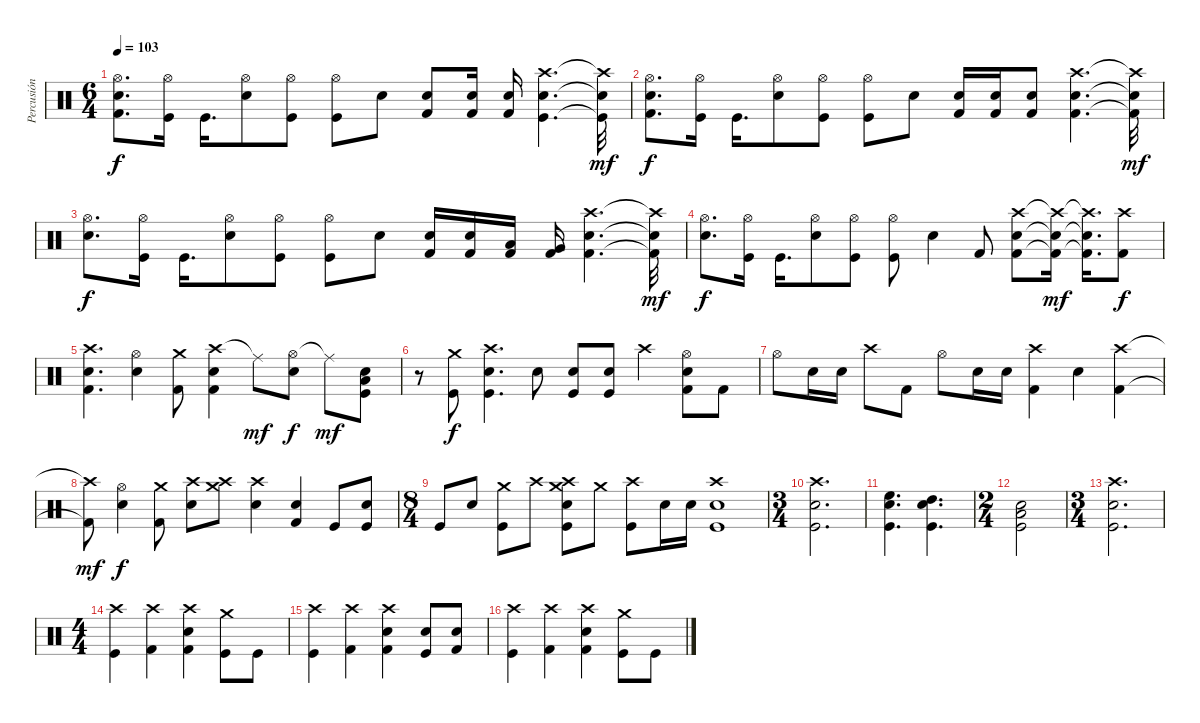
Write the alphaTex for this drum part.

\track ("Percusión" "Percusión") {instrument percussion}
\staff {score}
\articulation defaults
\ts (6 4)
\tempo 103
\clef neutral
\ks c
("Hi-Hat (open)" "Snare (hit) 2" "Kick (hit) 2").8{d dy f} ("Hi-Hat (open)" "Kick (hit)").16 "Kick (hit)".16{d} ("Snare (hit) 2" "Hi-Hat (open)").8 ("Kick (hit)" "Hi-Hat (open)").8 ("Hi-Hat (open)" "Kick (hit)").8 "Snare (hit) 2".8 ("Kick (hit) 2" "Snare (hit) 2").8 ("Snare (hit) 2" "Kick (hit) 2").16 ("Snare (hit) 2" "Kick (hit) 2").16 ("Crash high (hit)" "Snare (hit) 2" "Kick (hit)").4{d} ("Crash high (hit)"{t} "Snare (hit) 2"{t} "Kick (hit)"{t}).32{dy mf} |
("Hi-Hat (open)" "Snare (hit) 2" "Kick (hit) 2").8{d dy f} ("Hi-Hat (open)" "Kick (hit)").16 "Kick (hit)".16{d} ("Snare (hit) 2" "Hi-Hat (open)").8 ("Kick (hit)" "Hi-Hat (open)").8 ("Hi-Hat (open)" "Kick (hit)").8 "Snare (hit) 2".8 ("Snare (hit) 2" "Kick (hit) 2").16 ("Snare (hit) 2" "Kick (hit) 2").16 ("Snare (hit) 2" "Kick (hit) 2").8 ("Crash high (hit)" "Kick (hit) 2" "Snare (hit) 2").4{d} ("Crash high (hit)"{t} "Kick (hit) 2"{t} "Snare (hit) 2"{t}).32{dy mf} |
("Hi-Hat (open)" "Snare (hit) 2").8{d dy f} ("Hi-Hat (open)" "Kick (hit)").16 "Kick (hit)".16{d} ("Snare (hit) 2" "Hi-Hat (open)").8 ("Kick (hit)" "Hi-Hat (open)").8 ("Hi-Hat (open)" "Kick (hit)").8 "Snare (hit) 2".8 ("Snare (hit) 2" "Kick (hit) 2").16 ("Snare (hit) 2" "Kick (hit) 2").16 ("Kick (hit) 2" "Low Tom (hit)").16 ("Kick (hit) 2" "Very Low Tom (hit)").16 ("Crash high (hit)" "Kick (hit) 2" "Snare (hit) 2").4{d} ("Crash high (hit)"{t} "Kick (hit) 2"{t} "Snare (hit) 2"{t}).32{dy mf} |
("Hi-Hat (open)" "Snare (hit) 2").8{d dy f} ("Hi-Hat (open)" "Kick (hit)").16 "Kick (hit)".16{d} ("Snare (hit) 2" "Hi-Hat (open)").8 ("Kick (hit)" "Hi-Hat (open)").8 ("Hi-Hat (open)" "Kick (hit)").8 "Snare (hit) 2".4 "Kick (hit) 2".8 ("Crash high (hit)" "Snare (hit) 2" "Kick (hit) 2").8 ("Crash high (hit)"{t} "Snare (hit) 2"{t} "Kick (hit) 2"{t}).16{dy mf} ("Crash high (hit)"{t} "Snare (hit) 2"{t} "Kick (hit) 2"{t}).16{d} ("Crash high (hit)" "Kick (hit) 2").8{dy f} |
("Crash high (hit)" "Snare (hit) 2" "Kick (hit) 2").4{d} ("Snare (hit) 2" "Hi-Hat (open)").4 ("Crash medium (hit)" "Kick (hit) 2").8 ("Crash high (hit)" "Kick (hit) 2" "Snare (hit) 2").4 "Ride (middle)"{t}.8{dy mf} ("Hi-Hat (open)" "Snare (hit) 2").8{dy f} "Ride (middle)"{t}.8{dy mf} ("Low Floor Tom (hit)" "Kick (hit)" "Snare (hit) 2").8 |
r.8 ("Crash medium (hit)" "Kick (hit)").8{dy f} ("Crash high (hit)" "Snare (hit) 2" "Kick (hit)").4{d} "Snare (hit) 2".8 ("Kick (hit)" "Snare (hit) 2").8 ("Snare (hit) 2" "Kick (hit)").8 "Crash high (hit)".4 ("Hi-Hat (open)" "Kick (hit) 2" "Snare (hit) 2").8 "Kick (hit) 2".8 |
"Hi-Hat (open)".8 "Snare (hit) 2".16 "Snare (hit) 2".16 "Crash high (hit)".8 "Kick (hit) 2".8 "Hi-Hat (open)".8 "Snare (hit) 2".16 "Snare (hit) 2".16 ("Crash high (hit)" "Kick (hit) 2").4 "Snare (hit) 2".4 ("Crash high (hit)" "Kick (hit) 2").4 |
("Crash high (hit)"{t} "Kick (hit) 2"{t}).8{dy mf} ("Hi-Hat (open)" "Snare (hit) 2").4{dy f} ("Crash medium (hit)" "Kick (hit) 2").8 ("Crash high (hit)" "Snare (hit) 2").8 ("Crash high (hit)" "Crash medium (hit)").8 ("Crash high (hit)" "Snare (hit) 2").4 ("Snare (hit) 2" "Kick (hit) 2").4 "Kick (hit)".8 ("Kick (hit)" "Snare (hit) 2").8 |
\ts (8 4)
"Kick (hit)".8 "Snare (hit) 2".8 ("Crash medium (hit)" "Kick (hit)").8 "Crash high (hit)".8 ("Snare (hit) 2" "Kick (hit)" "Crash high (hit)" "Crash medium (hit)").8 "Crash medium (hit)".8 ("Crash high (hit)" "Kick (hit)").8 "Snare (hit) 2".16 "Snare (hit) 2".16 ("Snare (hit) 2" "Kick (hit)" "Crash high (hit)").1 |
\ts (3 4)
("Snare (hit) 2" "Kick (hit)" "Crash high (hit)").2{d} |
("Snare (hit) 2" "Kick (hit)" "High Floor Tom (hit)").4{d} ("Snare (hit) 2" "Kick (hit)" "High Tom (hit)").4{d} |
\ts (2 4)
("Snare (hit) 2" "Kick (hit)" "Low Tom (hit)").2 |
\ts (3 4)
("Snare (hit) 2" "Kick (hit)" "Crash high (hit)").2{d} |
\ts (4 4)
("Crash high (hit)" "Kick (hit)").4 ("Crash high (hit)" "Kick (hit) 2").4 ("Crash high (hit)" "Snare (hit) 2" "Kick (hit) 2").4 ("Crash medium (hit)" "Kick (hit)").8 "Kick (hit)".8 |
("Crash high (hit)" "Kick (hit)").4 ("Crash high (hit)" "Kick (hit) 2").4 ("Crash high (hit)" "Snare (hit) 2" "Kick (hit) 2").4 ("Kick (hit)" "Snare (hit) 2").8 ("Kick (hit) 2" "Snare (hit) 2").8 |
("Crash high (hit)" "Kick (hit)").4 ("Crash high (hit)" "Kick (hit) 2").4 ("Crash high (hit)" "Snare (hit) 2" "Kick (hit) 2").4 ("Crash medium (hit)" "Kick (hit)").8 "Kick (hit)".8
